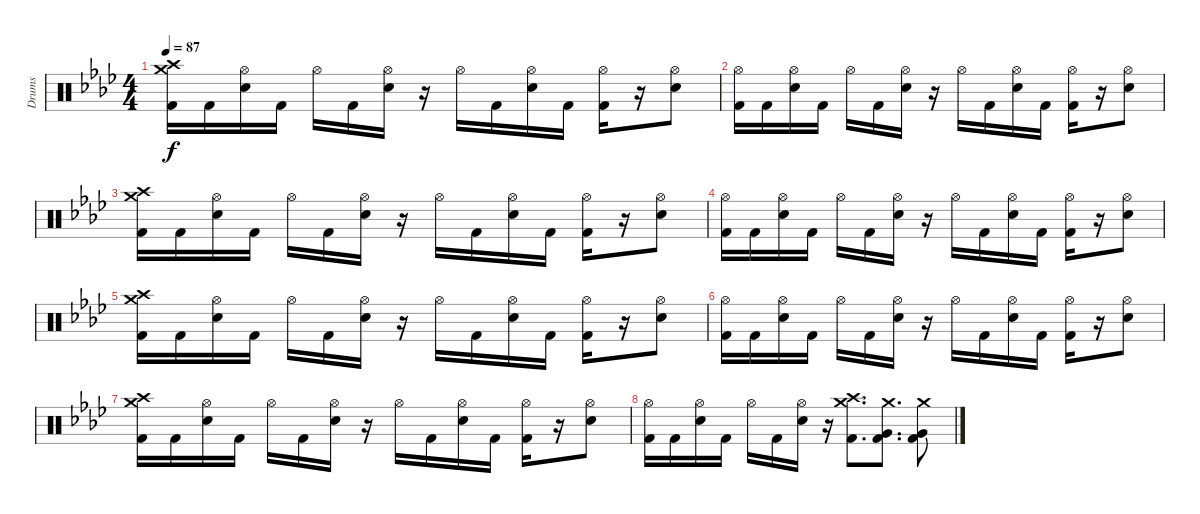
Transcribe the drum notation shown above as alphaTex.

\track ("Drums" "Drums") {instrument percussion}
\staff {score}
\articulation defaults
\ts (4 4)
\tempo 87
\clef neutral
\ks fminor
("Crash medium (hit)" "Crash high (hit)" "Kick (hit) 2").16{dy f} "Kick (hit) 2".16 ("Hi-Hat (open)" "Electric Snare (hit)").16 "Kick (hit) 2".16 "Hi-Hat (open)".16 "Kick (hit) 2".16 ("Hi-Hat (open)" "Electric Snare (hit)").16 r.16 "Hi-Hat (open)".16 "Kick (hit) 2".16 ("Hi-Hat (open)" "Electric Snare (hit)").16 "Kick (hit) 2".16 ("Hi-Hat (open)" "Kick (hit) 2").16 r.16 ("Hi-Hat (open)" "Electric Snare (hit)").8 |
("Hi-Hat (open)" "Kick (hit) 2").16 "Kick (hit) 2".16 ("Hi-Hat (open)" "Electric Snare (hit)").16 "Kick (hit) 2".16 "Hi-Hat (open)".16 "Kick (hit) 2".16 ("Hi-Hat (open)" "Electric Snare (hit)").16 r.16 "Hi-Hat (open)".16 "Kick (hit) 2".16 ("Hi-Hat (open)" "Electric Snare (hit)").16 "Kick (hit) 2".16 ("Hi-Hat (open)" "Kick (hit) 2").16 r.16 ("Hi-Hat (open)" "Electric Snare (hit)").8 |
("Crash medium (hit)" "Crash high (hit)" "Kick (hit) 2").16 "Kick (hit) 2".16 ("Hi-Hat (open)" "Electric Snare (hit)").16 "Kick (hit) 2".16 "Hi-Hat (open)".16 "Kick (hit) 2".16 ("Hi-Hat (open)" "Electric Snare (hit)").16 r.16 "Hi-Hat (open)".16 "Kick (hit) 2".16 ("Hi-Hat (open)" "Electric Snare (hit)").16 "Kick (hit) 2".16 ("Hi-Hat (open)" "Kick (hit) 2").16 r.16 ("Hi-Hat (open)" "Electric Snare (hit)").8 |
("Hi-Hat (open)" "Kick (hit) 2").16 "Kick (hit) 2".16 ("Hi-Hat (open)" "Electric Snare (hit)").16 "Kick (hit) 2".16 "Hi-Hat (open)".16 "Kick (hit) 2".16 ("Hi-Hat (open)" "Electric Snare (hit)").16 r.16 "Hi-Hat (open)".16 "Kick (hit) 2".16 ("Hi-Hat (open)" "Electric Snare (hit)").16 "Kick (hit) 2".16 ("Hi-Hat (open)" "Kick (hit) 2").16 r.16 ("Hi-Hat (open)" "Electric Snare (hit)").8 |
("Crash medium (hit)" "Crash high (hit)" "Kick (hit) 2").16 "Kick (hit) 2".16 ("Hi-Hat (open)" "Electric Snare (hit)").16 "Kick (hit) 2".16 "Hi-Hat (open)".16 "Kick (hit) 2".16 ("Hi-Hat (open)" "Electric Snare (hit)").16 r.16 "Hi-Hat (open)".16 "Kick (hit) 2".16 ("Hi-Hat (open)" "Electric Snare (hit)").16 "Kick (hit) 2".16 ("Hi-Hat (open)" "Kick (hit) 2").16 r.16 ("Hi-Hat (open)" "Electric Snare (hit)").8 |
("Hi-Hat (open)" "Kick (hit) 2").16 "Kick (hit) 2".16 ("Hi-Hat (open)" "Electric Snare (hit)").16 "Kick (hit) 2".16 "Hi-Hat (open)".16 "Kick (hit) 2".16 ("Hi-Hat (open)" "Electric Snare (hit)").16 r.16 "Hi-Hat (open)".16 "Kick (hit) 2".16 ("Hi-Hat (open)" "Electric Snare (hit)").16 "Kick (hit) 2".16 ("Hi-Hat (open)" "Kick (hit) 2").16 r.16 ("Hi-Hat (open)" "Electric Snare (hit)").8 |
("Crash medium (hit)" "Crash high (hit)" "Kick (hit) 2").16 "Kick (hit) 2".16 ("Hi-Hat (open)" "Electric Snare (hit)").16 "Kick (hit) 2".16 "Hi-Hat (open)".16 "Kick (hit) 2".16 ("Hi-Hat (open)" "Electric Snare (hit)").16 r.16 "Hi-Hat (open)".16 "Kick (hit) 2".16 ("Hi-Hat (open)" "Electric Snare (hit)").16 "Kick (hit) 2".16 ("Hi-Hat (open)" "Kick (hit) 2").16 r.16 ("Hi-Hat (open)" "Electric Snare (hit)").8 |
("Hi-Hat (open)" "Kick (hit) 2").16 "Kick (hit) 2".16 ("Hi-Hat (open)" "Electric Snare (hit)").16 "Kick (hit) 2".16 "Hi-Hat (open)".16 "Kick (hit) 2".16 ("Hi-Hat (open)" "Electric Snare (hit)").16 r.16 ("Crash medium (hit)" "Crash high (hit)" "Kick (hit) 2").8{d} ("Crash medium (hit)" "Very Low Tom (hit)" "Kick (hit) 2").8{d} ("Crash medium (hit)" "Very Low Tom (hit)" "Kick (hit) 2").8
